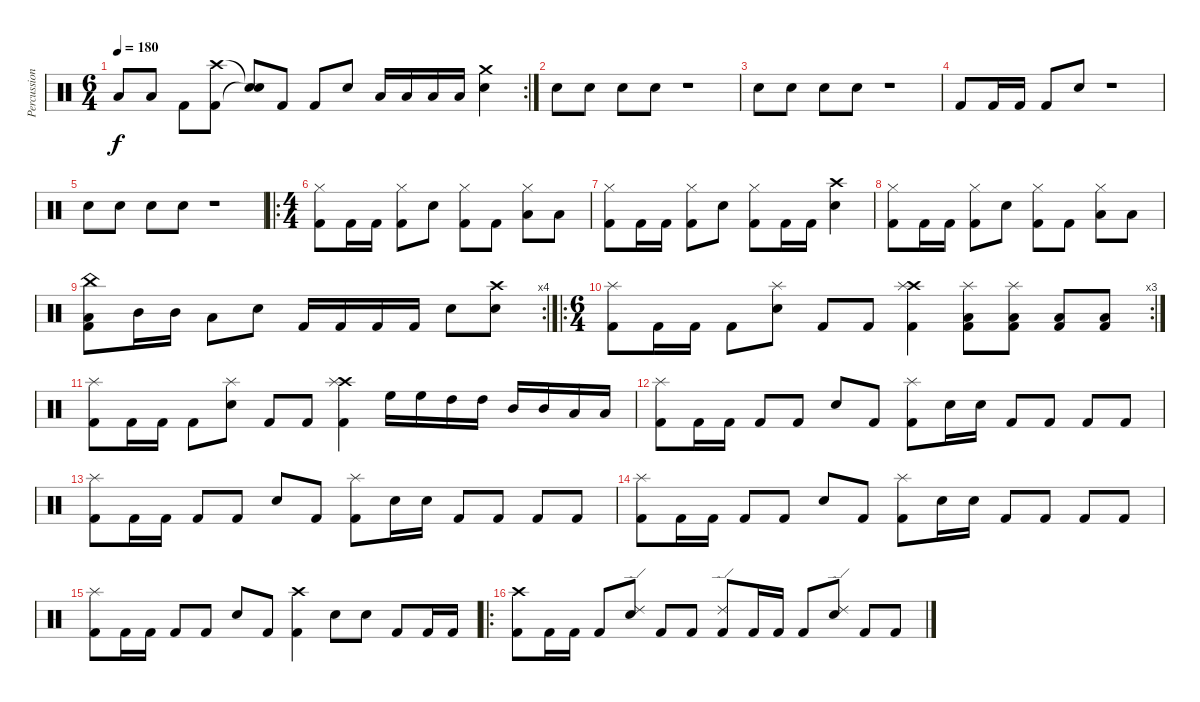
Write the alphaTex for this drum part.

\track ("Percussion" "Percussion") {instrument percussion}
\staff {score}
\articulation defaults
\rc 2
\ts (6 4)
\tempo 180
\clef neutral
\ks c "Low Tom (hit)".8{dy f} "Low Tom (hit)".8 "Kick (hit) 2".8
("Crash high (hit)" "Kick (hit) 2").8 ("Snare (hit)"{t} "Snare (hit)"{t}).8 "Kick (hit) 2".8 "Kick (hit) 2".8 "Snare (hit) 2".8 "Low Tom (hit)".16 "Low Tom (hit)".16 "Low Tom (hit)".16 "Low Tom (hit)".16 ("Crash medium (hit)" "Snare (hit) 2").4 |
"Snare (hit) 2".8 "Snare (hit) 2".8 "Snare (hit) 2".8 "Snare (hit) 2".8 r.1 |
"Snare (hit) 2".8 "Snare (hit) 2".8 "Snare (hit) 2".8 "Snare (hit) 2".8 r.1 |
"Kick (hit) 2".8 "Kick (hit) 2".16 "Kick (hit) 2".16 "Kick (hit) 2".8 "Snare (hit) 2".8 r.1 |
"Snare (hit) 2".8 "Snare (hit) 2".8 "Snare (hit) 2".8 "Snare (hit) 2".8 r.1 |
\ro
\ts (4 4)
("Hi-Hat (closed)" "Kick (hit) 2").8 "Kick (hit) 2".16 "Kick (hit) 2".16 ("Hi-Hat (closed)" "Kick (hit) 2").8 "Snare (hit) 2".8 ("Hi-Hat (closed)" "Kick (hit) 2").8 "Kick (hit) 2".8 ("Hi-Hat (closed)" "Low Tom (hit)").8 "Low Tom (hit)".8 |
("Hi-Hat (closed)" "Kick (hit) 2").8 "Kick (hit) 2".16 "Kick (hit) 2".16 ("Hi-Hat (closed)" "Kick (hit) 2").8 "Snare (hit) 2".8 ("Hi-Hat (closed)" "Kick (hit) 2").8 "Kick (hit) 2".16 "Kick (hit) 2".16 ("Crash high (hit)" "Snare (hit) 2").4 |
("Hi-Hat (closed)" "Kick (hit) 2").8 "Kick (hit) 2".16 "Kick (hit) 2".16 ("Hi-Hat (closed)" "Kick (hit) 2").8 "Snare (hit) 2".8 ("Hi-Hat (closed)" "Kick (hit) 2").8 "Kick (hit) 2".8 ("Hi-Hat (closed)" "Low Tom (hit)").8 "Low Tom (hit)".8 |
\rc 4
("China (hit)" "Low Tom (hit)" "Kick (hit) 2").8 "Mid Tom (hit)".16 "Mid Tom (hit)".16 "Low Tom (hit)".8 "Snare (hit) 2".8 "Kick (hit) 2".16 "Kick (hit) 2".16 "Kick (hit) 2".16 "Kick (hit) 2".16 "Snare (hit) 2".8 ("Crash high (hit)" "Snare (hit) 2").8 |
\ro
\rc 3
\ts (6 4)
("Splash (hit)" "Kick (hit) 2").8 "Kick (hit) 2".16 "Kick (hit) 2".16 "Kick (hit) 2".8 ("Splash (hit)" "Snare (hit) 2").8 "Kick (hit) 2".8 "Kick (hit) 2".8 ("Crash high (hit)" "Splash (hit)" "Kick (hit) 2").4 ("Splash (hit)" "Low Tom (hit)" "Kick (hit) 2").8 ("Splash (hit)" "Low Tom (hit)" "Kick (hit) 2").8 ("Low Tom (hit)" "Kick (hit) 2").8 ("Low Tom (hit)" "Kick (hit) 2").8 |
("Splash (hit)" "Kick (hit) 2").8 "Kick (hit) 2".16 "Kick (hit) 2".16 "Kick (hit) 2".8 ("Splash (hit)" "Snare (hit) 2").8 "Kick (hit) 2".8 "Kick (hit) 2".8 ("Crash high (hit)" "Splash (hit)" "Kick (hit) 2").4 "High Floor Tom (hit)".16 "High Floor Tom (hit)".16 "High Tom (hit)".16 "High Tom (hit)".16 "Mid Tom (hit)".16 "Mid Tom (hit)".16 "Low Tom (hit)".16 "Low Tom (hit)".16 |
("Splash (hit)" "Kick (hit) 2").8 "Kick (hit) 2".16 "Kick (hit) 2".16 "Kick (hit) 2".8 "Kick (hit) 2".8 "Snare (hit) 2".8 "Kick (hit) 2".8 ("Splash (hit)" "Kick (hit) 2").8 "Snare (hit) 2".16 "Snare (hit) 2".16 "Kick (hit) 2".8 "Kick (hit) 2".8 "Kick (hit) 2".8 "Kick (hit) 2".8 |
("Splash (hit)" "Kick (hit) 2").8 "Kick (hit) 2".16 "Kick (hit) 2".16 "Kick (hit) 2".8 "Kick (hit) 2".8 "Snare (hit) 2".8 "Kick (hit) 2".8 ("Splash (hit)" "Kick (hit) 2").8 "Snare (hit) 2".16 "Snare (hit) 2".16 "Kick (hit) 2".8 "Kick (hit) 2".8 "Kick (hit) 2".8 "Kick (hit) 2".8 |
("Splash (hit)" "Kick (hit) 2").8 "Kick (hit) 2".16 "Kick (hit) 2".16 "Kick (hit) 2".8 "Kick (hit) 2".8 "Snare (hit) 2".8 "Kick (hit) 2".8 ("Splash (hit)" "Kick (hit) 2").8 "Snare (hit) 2".16 "Snare (hit) 2".16 "Kick (hit) 2".8 "Kick (hit) 2".8 "Kick (hit) 2".8 "Kick (hit) 2".8 |
("Splash (hit)" "Kick (hit) 2").8 "Kick (hit) 2".16 "Kick (hit) 2".16 "Kick (hit) 2".8 "Kick (hit) 2".8 "Snare (hit) 2".8 "Kick (hit) 2".8 ("Crash high (hit)" "Kick (hit) 2").4 "Snare (hit) 2".8 "Snare (hit) 2".8 "Kick (hit) 2".8 "Kick (hit) 2".16 "Kick (hit) 2".16 |
\ro
("Crash high (hit)" "Kick (hit) 2").8 "Kick (hit) 2".16 "Kick (hit) 2".16 "Kick (hit) 2".8 ("Ride (edge) 2" "Snare (hit) 2").8 "Kick (hit) 2".8 "Kick (hit) 2".8 ("Ride (edge) 2" "Kick (hit) 2").8 "Kick (hit) 2".16 "Kick (hit) 2".16 "Kick (hit) 2".8 ("Ride (edge) 2" "Snare (hit) 2").8 "Kick (hit) 2".8 "Kick (hit) 2".8
